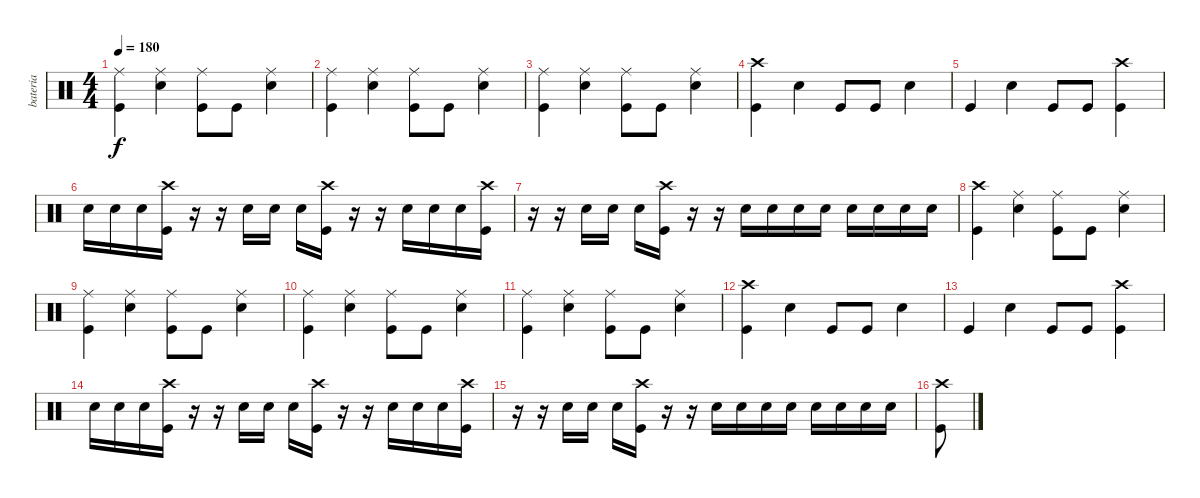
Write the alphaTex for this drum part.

\track ("bateria" "bateria") {instrument percussion}
\staff {score}
\articulation defaults
\ts (4 4)
\tempo 180
\clef neutral
\ks c
("Ride (middle)" "Kick (hit)").4{dy f} ("Ride (middle)" "Electric Snare (hit)").4 ("Ride (middle)" "Kick (hit)").8 "Kick (hit)".8 ("Ride (middle)" "Electric Snare (hit)").4 |
("Ride (middle)" "Kick (hit)").4 ("Ride (middle)" "Electric Snare (hit)").4 ("Ride (middle)" "Kick (hit)").8 "Kick (hit)".8 ("Ride (middle)" "Electric Snare (hit)").4 |
("Ride (middle)" "Kick (hit)").4 ("Ride (middle)" "Electric Snare (hit)").4 ("Ride (middle)" "Kick (hit)").8 "Kick (hit)".8 ("Ride (middle)" "Electric Snare (hit)").4 |
("Crash high (hit)" "Kick (hit)").4 "Electric Snare (hit)".4 "Kick (hit)".8 "Kick (hit)".8 "Electric Snare (hit)".4 |
"Kick (hit)".4 "Electric Snare (hit)".4 "Kick (hit)".8 "Kick (hit)".8 ("Crash high (hit)" "Kick (hit)").4 |
"Electric Snare (hit)".16 "Electric Snare (hit)".16 "Electric Snare (hit)".16 ("Crash high (hit)" "Kick (hit)").16 r.16 r.16 "Electric Snare (hit)".16 "Electric Snare (hit)".16 "Electric Snare (hit)".16 ("Crash high (hit)" "Kick (hit)").16 r.16 r.16 "Electric Snare (hit)".16 "Electric Snare (hit)".16 "Electric Snare (hit)".16 ("Crash high (hit)" "Kick (hit)").16 |
r.16 r.16 "Electric Snare (hit)".16 "Electric Snare (hit)".16 "Electric Snare (hit)".16 ("Crash high (hit)" "Kick (hit)").16 r.16 r.16 "Electric Snare (hit)".16 "Electric Snare (hit)".16 "Electric Snare (hit)".16 "Electric Snare (hit)".16 "Electric Snare (hit)".16 "Electric Snare (hit)".16 "Electric Snare (hit)".16 "Electric Snare (hit)".16 |
("Crash high (hit)" "Kick (hit)").4 ("Ride (middle)" "Electric Snare (hit)").4 ("Ride (middle)" "Kick (hit)").8 "Kick (hit)".8 ("Ride (middle)" "Electric Snare (hit)").4 |
("Ride (middle)" "Kick (hit)").4 ("Ride (middle)" "Electric Snare (hit)").4 ("Ride (middle)" "Kick (hit)").8 "Kick (hit)".8 ("Ride (middle)" "Electric Snare (hit)").4 |
("Ride (middle)" "Kick (hit)").4 ("Ride (middle)" "Electric Snare (hit)").4 ("Ride (middle)" "Kick (hit)").8 "Kick (hit)".8 ("Ride (middle)" "Electric Snare (hit)").4 |
("Ride (middle)" "Kick (hit)").4 ("Ride (middle)" "Electric Snare (hit)").4 ("Ride (middle)" "Kick (hit)").8 "Kick (hit)".8 ("Ride (middle)" "Electric Snare (hit)").4 |
("Crash high (hit)" "Kick (hit)").4 "Electric Snare (hit)".4 "Kick (hit)".8 "Kick (hit)".8 "Electric Snare (hit)".4 |
"Kick (hit)".4 "Electric Snare (hit)".4 "Kick (hit)".8 "Kick (hit)".8 ("Crash high (hit)" "Kick (hit)").4 |
"Electric Snare (hit)".16 "Electric Snare (hit)".16 "Electric Snare (hit)".16 ("Crash high (hit)" "Kick (hit)").16 r.16 r.16 "Electric Snare (hit)".16 "Electric Snare (hit)".16 "Electric Snare (hit)".16 ("Crash high (hit)" "Kick (hit)").16 r.16 r.16 "Electric Snare (hit)".16 "Electric Snare (hit)".16 "Electric Snare (hit)".16 ("Crash high (hit)" "Kick (hit)").16 |
r.16 r.16 "Electric Snare (hit)".16 "Electric Snare (hit)".16 "Electric Snare (hit)".16 ("Crash high (hit)" "Kick (hit)").16 r.16 r.16 "Electric Snare (hit)".16 "Electric Snare (hit)".16 "Electric Snare (hit)".16 "Electric Snare (hit)".16 "Electric Snare (hit)".16 "Electric Snare (hit)".16 "Electric Snare (hit)".16 "Electric Snare (hit)".16 |
("Crash high (hit)" "Kick (hit)").8
